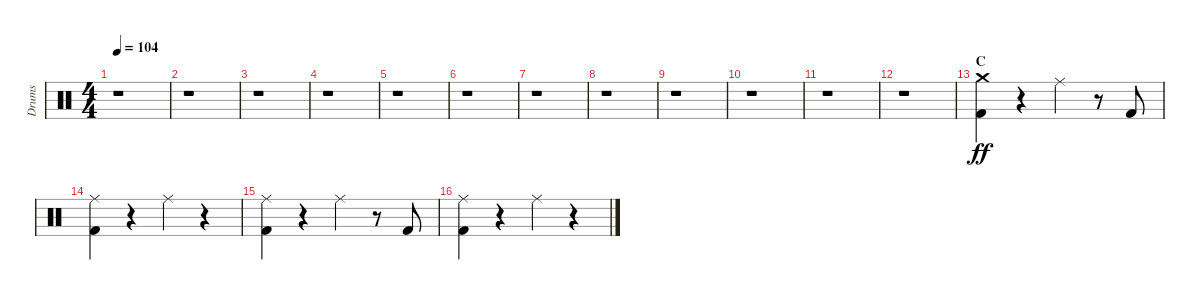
\track ("Drums" "Drums") {instrument percussion}
\staff {score}
\articulation defaults
\ts (4 4)
\tempo 104
\clef neutral
\ks c
r.1{dy mf} |
r.1 |
r.1 |
r.1 |
r.1 |
r.1 |
r.1 |
r.1 |
r.1 |
r.1 |
r.1 |
r.1 |
\section ("" "C")
("Crash medium (hit)" "Kick (hit) 2").4{dy ff} r.4 "Ride (middle)".4 r.8 "Kick (hit) 2".8 |
("Ride (middle)" "Kick (hit) 2").4 r.4 "Ride (middle)".4 r.4 |
("Ride (middle)" "Kick (hit) 2").4 r.4 "Ride (middle)".4 r.8 "Kick (hit) 2".8 |
("Ride (middle)" "Kick (hit) 2").4 r.4 "Ride (middle)".4 r.4
